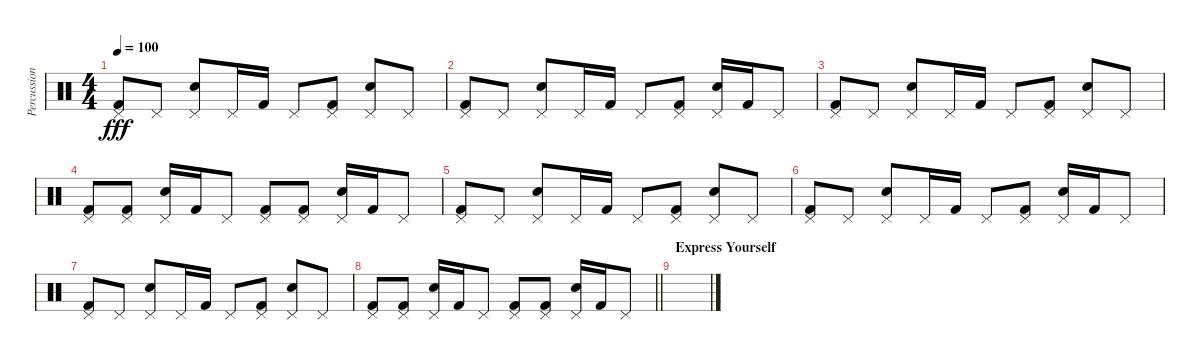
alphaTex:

\track ("Percussion" "Percussion") {instrument percussion}
\staff {score}
\articulation defaults
\ts (4 4)
\tempo 100
\clef neutral
\ks c
("Pedal Hi-Hat (hit)" "Kick (hit) 2").8{dy fff} "Pedal Hi-Hat (hit)".8 ("Pedal Hi-Hat (hit)" "Electric Snare (hit)").8 "Pedal Hi-Hat (hit)".16 "Kick (hit) 2".16 "Pedal Hi-Hat (hit)".8 ("Pedal Hi-Hat (hit)" "Kick (hit) 2").8 ("Pedal Hi-Hat (hit)" "Electric Snare (hit)").8 "Pedal Hi-Hat (hit)".8 |
("Pedal Hi-Hat (hit)" "Kick (hit) 2").8 "Pedal Hi-Hat (hit)".8 ("Pedal Hi-Hat (hit)" "Electric Snare (hit)").8 "Pedal Hi-Hat (hit)".16 "Kick (hit) 2".16 "Pedal Hi-Hat (hit)".8 ("Pedal Hi-Hat (hit)" "Kick (hit) 2").8 ("Pedal Hi-Hat (hit)" "Electric Snare (hit)").16 "Kick (hit) 2".16 "Pedal Hi-Hat (hit)".8 |
("Pedal Hi-Hat (hit)" "Kick (hit) 2").8 "Pedal Hi-Hat (hit)".8 ("Pedal Hi-Hat (hit)" "Electric Snare (hit)").8 "Pedal Hi-Hat (hit)".16 "Kick (hit) 2".16 "Pedal Hi-Hat (hit)".8 ("Pedal Hi-Hat (hit)" "Kick (hit) 2").8 ("Pedal Hi-Hat (hit)" "Electric Snare (hit)").8 "Pedal Hi-Hat (hit)".8 |
("Pedal Hi-Hat (hit)" "Kick (hit) 2").8 ("Pedal Hi-Hat (hit)" "Kick (hit) 2").8 ("Pedal Hi-Hat (hit)" "Electric Snare (hit)").16 "Kick (hit) 2".16 "Pedal Hi-Hat (hit)".8 ("Pedal Hi-Hat (hit)" "Kick (hit) 2").8 ("Pedal Hi-Hat (hit)" "Kick (hit) 2").8 ("Pedal Hi-Hat (hit)" "Electric Snare (hit)").16 "Kick (hit) 2".16 "Pedal Hi-Hat (hit)".8 |
("Pedal Hi-Hat (hit)" "Kick (hit) 2").8 "Pedal Hi-Hat (hit)".8 ("Pedal Hi-Hat (hit)" "Electric Snare (hit)").8 "Pedal Hi-Hat (hit)".16 "Kick (hit) 2".16 "Pedal Hi-Hat (hit)".8 ("Pedal Hi-Hat (hit)" "Kick (hit) 2").8 ("Pedal Hi-Hat (hit)" "Electric Snare (hit)").8 "Pedal Hi-Hat (hit)".8 |
("Pedal Hi-Hat (hit)" "Kick (hit) 2").8 "Pedal Hi-Hat (hit)".8 ("Pedal Hi-Hat (hit)" "Electric Snare (hit)").8 "Pedal Hi-Hat (hit)".16 "Kick (hit) 2".16 "Pedal Hi-Hat (hit)".8 ("Pedal Hi-Hat (hit)" "Kick (hit) 2").8 ("Pedal Hi-Hat (hit)" "Electric Snare (hit)").16 "Kick (hit) 2".16 "Pedal Hi-Hat (hit)".8 |
("Pedal Hi-Hat (hit)" "Kick (hit) 2").8 "Pedal Hi-Hat (hit)".8 ("Pedal Hi-Hat (hit)" "Electric Snare (hit)").8 "Pedal Hi-Hat (hit)".16 "Kick (hit) 2".16 "Pedal Hi-Hat (hit)".8 ("Pedal Hi-Hat (hit)" "Kick (hit) 2").8 ("Pedal Hi-Hat (hit)" "Electric Snare (hit)").8 "Pedal Hi-Hat (hit)".8 |
\barLineRight lightlight
("Pedal Hi-Hat (hit)" "Kick (hit) 2").8 ("Pedal Hi-Hat (hit)" "Kick (hit) 2").8 ("Pedal Hi-Hat (hit)" "Electric Snare (hit)").16 "Kick (hit) 2".16 "Pedal Hi-Hat (hit)".8 ("Pedal Hi-Hat (hit)" "Kick (hit) 2").8 ("Pedal Hi-Hat (hit)" "Kick (hit) 2").8 ("Pedal Hi-Hat (hit)" "Electric Snare (hit)").16 "Kick (hit) 2".16 "Pedal Hi-Hat (hit)".8 |
\section ("" "Express Yourself")
